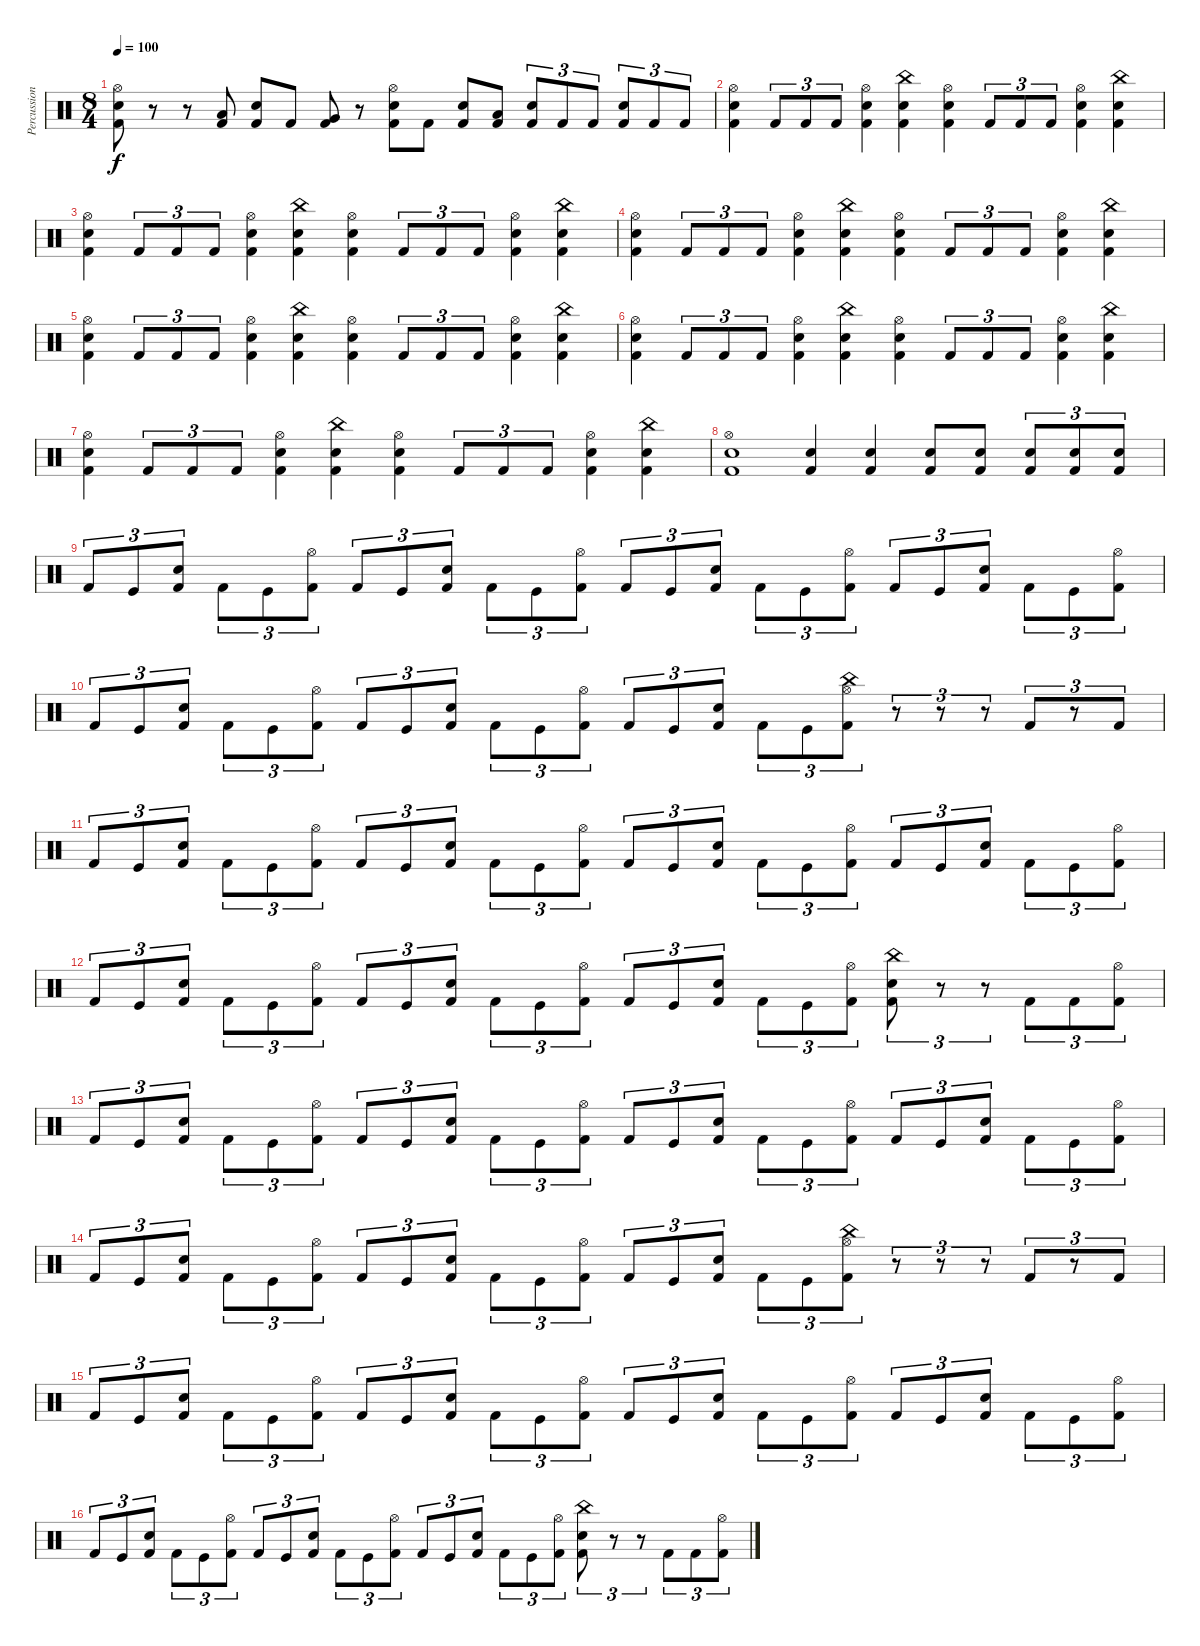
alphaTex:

\track ("Percussions" "Percussion") {instrument percussion}
\staff {score}
\articulation defaults
\ts (8 4)
\tempo 100
\clef neutral
\ks c
("Hi-Hat (open)" "Electric Snare (hit)" "Kick (hit) 2").8{dy f} r.8 r.8 ("Low Floor Tom (hit)" "Kick (hit) 2").8 ("Electric Snare (hit)" "Kick (hit) 2").8 "Kick (hit) 2".8 ("Very Low Tom (hit)" "Kick (hit) 2").8 r.8 ("Hi-Hat (open)" "Electric Snare (hit)" "Kick (hit) 2").8 "Kick (hit) 2".8 ("Electric Snare (hit)" "Kick (hit) 2").8 ("Low Floor Tom (hit)" "Kick (hit) 2").8 ("Electric Snare (hit)" "Kick (hit) 2").8{tu (3 2)} "Kick (hit) 2".8{tu (3 2)} "Kick (hit) 2".8{tu (3 2)} ("Electric Snare (hit)" "Kick (hit) 2").8{tu (3 2)} "Kick (hit) 2".8{tu (3 2)} "Kick (hit) 2".8{tu (3 2)} |
("Hi-Hat (open)" "Electric Snare (hit)" "Kick (hit) 2").4 "Kick (hit) 2".8{tu (3 2)} "Kick (hit) 2".8{tu (3 2)} "Kick (hit) 2".8{tu (3 2)} ("Hi-Hat (open)" "Electric Snare (hit)" "Kick (hit) 2").4 ("China (hit)" "Electric Snare (hit)" "Kick (hit) 2").4 ("Hi-Hat (open)" "Electric Snare (hit)" "Kick (hit) 2").4 "Kick (hit) 2".8{tu (3 2)} "Kick (hit) 2".8{tu (3 2)} "Kick (hit) 2".8{tu (3 2)} ("Hi-Hat (open)" "Electric Snare (hit)" "Kick (hit) 2").4 ("China (hit)" "Electric Snare (hit)" "Kick (hit) 2").4 |
("Hi-Hat (open)" "Electric Snare (hit)" "Kick (hit) 2").4 "Kick (hit) 2".8{tu (3 2)} "Kick (hit) 2".8{tu (3 2)} "Kick (hit) 2".8{tu (3 2)} ("Hi-Hat (open)" "Electric Snare (hit)" "Kick (hit) 2").4 ("China (hit)" "Electric Snare (hit)" "Kick (hit) 2").4 ("Hi-Hat (open)" "Electric Snare (hit)" "Kick (hit) 2").4 "Kick (hit) 2".8{tu (3 2)} "Kick (hit) 2".8{tu (3 2)} "Kick (hit) 2".8{tu (3 2)} ("Hi-Hat (open)" "Electric Snare (hit)" "Kick (hit) 2").4 ("China (hit)" "Electric Snare (hit)" "Kick (hit) 2").4 |
("Hi-Hat (open)" "Electric Snare (hit)" "Kick (hit) 2").4 "Kick (hit) 2".8{tu (3 2)} "Kick (hit) 2".8{tu (3 2)} "Kick (hit) 2".8{tu (3 2)} ("Hi-Hat (open)" "Electric Snare (hit)" "Kick (hit) 2").4 ("China (hit)" "Electric Snare (hit)" "Kick (hit) 2").4 ("Hi-Hat (open)" "Electric Snare (hit)" "Kick (hit) 2").4 "Kick (hit) 2".8{tu (3 2)} "Kick (hit) 2".8{tu (3 2)} "Kick (hit) 2".8{tu (3 2)} ("Hi-Hat (open)" "Electric Snare (hit)" "Kick (hit) 2").4 ("China (hit)" "Electric Snare (hit)" "Kick (hit) 2").4 |
("Hi-Hat (open)" "Electric Snare (hit)" "Kick (hit) 2").4 "Kick (hit) 2".8{tu (3 2)} "Kick (hit) 2".8{tu (3 2)} "Kick (hit) 2".8{tu (3 2)} ("Hi-Hat (open)" "Electric Snare (hit)" "Kick (hit) 2").4 ("China (hit)" "Electric Snare (hit)" "Kick (hit) 2").4 ("Hi-Hat (open)" "Electric Snare (hit)" "Kick (hit) 2").4 "Kick (hit) 2".8{tu (3 2)} "Kick (hit) 2".8{tu (3 2)} "Kick (hit) 2".8{tu (3 2)} ("Hi-Hat (open)" "Electric Snare (hit)" "Kick (hit) 2").4 ("China (hit)" "Electric Snare (hit)" "Kick (hit) 2").4 |
("Hi-Hat (open)" "Electric Snare (hit)" "Kick (hit) 2").4 "Kick (hit) 2".8{tu (3 2)} "Kick (hit) 2".8{tu (3 2)} "Kick (hit) 2".8{tu (3 2)} ("Hi-Hat (open)" "Electric Snare (hit)" "Kick (hit) 2").4 ("China (hit)" "Electric Snare (hit)" "Kick (hit) 2").4 ("Hi-Hat (open)" "Electric Snare (hit)" "Kick (hit) 2").4 "Kick (hit) 2".8{tu (3 2)} "Kick (hit) 2".8{tu (3 2)} "Kick (hit) 2".8{tu (3 2)} ("Hi-Hat (open)" "Electric Snare (hit)" "Kick (hit) 2").4 ("China (hit)" "Electric Snare (hit)" "Kick (hit) 2").4 |
("Hi-Hat (open)" "Electric Snare (hit)" "Kick (hit) 2").4 "Kick (hit) 2".8{tu (3 2)} "Kick (hit) 2".8{tu (3 2)} "Kick (hit) 2".8{tu (3 2)} ("Hi-Hat (open)" "Electric Snare (hit)" "Kick (hit) 2").4 ("China (hit)" "Electric Snare (hit)" "Kick (hit) 2").4 ("Hi-Hat (open)" "Electric Snare (hit)" "Kick (hit) 2").4 "Kick (hit) 2".8{tu (3 2)} "Kick (hit) 2".8{tu (3 2)} "Kick (hit) 2".8{tu (3 2)} ("Hi-Hat (open)" "Electric Snare (hit)" "Kick (hit) 2").4 ("China (hit)" "Electric Snare (hit)" "Kick (hit) 2").4 |
("Hi-Hat (open)" "Electric Snare (hit)" "Kick (hit) 2").1 ("Electric Snare (hit)" "Kick (hit) 2").4 ("Electric Snare (hit)" "Kick (hit) 2").4 ("Electric Snare (hit)" "Kick (hit) 2").8 ("Electric Snare (hit)" "Kick (hit) 2").8 ("Electric Snare (hit)" "Kick (hit) 2").8{tu (3 2)} ("Electric Snare (hit)" "Kick (hit) 2").8{tu (3 2)} ("Electric Snare (hit)" "Kick (hit) 2").8{tu (3 2)} |
"Kick (hit) 2".8{tu (3 2)} "Kick (hit)".8{tu (3 2)} ("Electric Snare (hit)" "Kick (hit) 2").8{tu (3 2)} "Kick (hit) 2".8{tu (3 2)} "Kick (hit)".8{tu (3 2)} ("Hi-Hat (open)" "Kick (hit) 2").8{tu (3 2)} "Kick (hit) 2".8{tu (3 2)} "Kick (hit)".8{tu (3 2)} ("Electric Snare (hit)" "Kick (hit) 2").8{tu (3 2)} "Kick (hit) 2".8{tu (3 2)} "Kick (hit)".8{tu (3 2)} ("Hi-Hat (open)" "Kick (hit) 2").8{tu (3 2)} "Kick (hit) 2".8{tu (3 2)} "Kick (hit)".8{tu (3 2)} ("Electric Snare (hit)" "Kick (hit) 2").8{tu (3 2)} "Kick (hit) 2".8{tu (3 2)} "Kick (hit)".8{tu (3 2)} ("Hi-Hat (open)" "Kick (hit) 2").8{tu (3 2)} "Kick (hit) 2".8{tu (3 2)} "Kick (hit)".8{tu (3 2)} ("Electric Snare (hit)" "Kick (hit) 2").8{tu (3 2)} "Kick (hit) 2".8{tu (3 2)} "Kick (hit)".8{tu (3 2)} ("Hi-Hat (open)" "Kick (hit) 2").8{tu (3 2)} |
"Kick (hit) 2".8{tu (3 2)} "Kick (hit)".8{tu (3 2)} ("Electric Snare (hit)" "Kick (hit) 2").8{tu (3 2)} "Kick (hit) 2".8{tu (3 2)} "Kick (hit)".8{tu (3 2)} ("Hi-Hat (open)" "Kick (hit) 2").8{tu (3 2)} "Kick (hit) 2".8{tu (3 2)} "Kick (hit)".8{tu (3 2)} ("Electric Snare (hit)" "Kick (hit) 2").8{tu (3 2)} "Kick (hit) 2".8{tu (3 2)} "Kick (hit)".8{tu (3 2)} ("Hi-Hat (open)" "Kick (hit) 2").8{tu (3 2)} "Kick (hit) 2".8{tu (3 2)} "Kick (hit)".8{tu (3 2)} ("Electric Snare (hit)" "Kick (hit) 2").8{tu (3 2)} "Kick (hit) 2".8{tu (3 2)} "Kick (hit)".8{tu (3 2)} ("China (hit)" "Hi-Hat (open)" "Kick (hit) 2").8{tu (3 2)} r.8{tu (3 2)} r.8{tu (3 2)} r.8{tu (3 2)} "Kick (hit) 2".8{tu (3 2)} r.8{tu (3 2)} "Kick (hit) 2".8{tu (3 2)} |
"Kick (hit) 2".8{tu (3 2)} "Kick (hit)".8{tu (3 2)} ("Electric Snare (hit)" "Kick (hit) 2").8{tu (3 2)} "Kick (hit) 2".8{tu (3 2)} "Kick (hit)".8{tu (3 2)} ("Hi-Hat (open)" "Kick (hit) 2").8{tu (3 2)} "Kick (hit) 2".8{tu (3 2)} "Kick (hit)".8{tu (3 2)} ("Electric Snare (hit)" "Kick (hit) 2").8{tu (3 2)} "Kick (hit) 2".8{tu (3 2)} "Kick (hit)".8{tu (3 2)} ("Hi-Hat (open)" "Kick (hit) 2").8{tu (3 2)} "Kick (hit) 2".8{tu (3 2)} "Kick (hit)".8{tu (3 2)} ("Electric Snare (hit)" "Kick (hit) 2").8{tu (3 2)} "Kick (hit) 2".8{tu (3 2)} "Kick (hit)".8{tu (3 2)} ("Hi-Hat (open)" "Kick (hit) 2").8{tu (3 2)} "Kick (hit) 2".8{tu (3 2)} "Kick (hit)".8{tu (3 2)} ("Electric Snare (hit)" "Kick (hit) 2").8{tu (3 2)} "Kick (hit) 2".8{tu (3 2)} "Kick (hit)".8{tu (3 2)} ("Hi-Hat (open)" "Kick (hit) 2").8{tu (3 2)} |
"Kick (hit) 2".8{tu (3 2)} "Kick (hit)".8{tu (3 2)} ("Electric Snare (hit)" "Kick (hit) 2").8{tu (3 2)} "Kick (hit) 2".8{tu (3 2)} "Kick (hit)".8{tu (3 2)} ("Hi-Hat (open)" "Kick (hit) 2").8{tu (3 2)} "Kick (hit) 2".8{tu (3 2)} "Kick (hit)".8{tu (3 2)} ("Electric Snare (hit)" "Kick (hit) 2").8{tu (3 2)} "Kick (hit) 2".8{tu (3 2)} "Kick (hit)".8{tu (3 2)} ("Hi-Hat (open)" "Kick (hit) 2").8{tu (3 2)} "Kick (hit) 2".8{tu (3 2)} "Kick (hit)".8{tu (3 2)} ("Electric Snare (hit)" "Kick (hit) 2").8{tu (3 2)} "Kick (hit) 2".8{tu (3 2)} "Kick (hit)".8{tu (3 2)} ("Hi-Hat (open)" "Kick (hit) 2").8{tu (3 2)} ("China (hit)" "Electric Snare (hit)" "Kick (hit) 2").8{tu (3 2)} r.8{tu (3 2)} r.8{tu (3 2)} "Kick (hit) 2".8{tu (3 2)} "Kick (hit) 2".8{tu (3 2)} ("Hi-Hat (open)" "Kick (hit) 2").8{tu (3 2)} |
"Kick (hit) 2".8{tu (3 2)} "Kick (hit)".8{tu (3 2)} ("Electric Snare (hit)" "Kick (hit) 2").8{tu (3 2)} "Kick (hit) 2".8{tu (3 2)} "Kick (hit)".8{tu (3 2)} ("Hi-Hat (open)" "Kick (hit) 2").8{tu (3 2)} "Kick (hit) 2".8{tu (3 2)} "Kick (hit)".8{tu (3 2)} ("Electric Snare (hit)" "Kick (hit) 2").8{tu (3 2)} "Kick (hit) 2".8{tu (3 2)} "Kick (hit)".8{tu (3 2)} ("Hi-Hat (open)" "Kick (hit) 2").8{tu (3 2)} "Kick (hit) 2".8{tu (3 2)} "Kick (hit)".8{tu (3 2)} ("Electric Snare (hit)" "Kick (hit) 2").8{tu (3 2)} "Kick (hit) 2".8{tu (3 2)} "Kick (hit)".8{tu (3 2)} ("Hi-Hat (open)" "Kick (hit) 2").8{tu (3 2)} "Kick (hit) 2".8{tu (3 2)} "Kick (hit)".8{tu (3 2)} ("Electric Snare (hit)" "Kick (hit) 2").8{tu (3 2)} "Kick (hit) 2".8{tu (3 2)} "Kick (hit)".8{tu (3 2)} ("Hi-Hat (open)" "Kick (hit) 2").8{tu (3 2)} |
"Kick (hit) 2".8{tu (3 2)} "Kick (hit)".8{tu (3 2)} ("Electric Snare (hit)" "Kick (hit) 2").8{tu (3 2)} "Kick (hit) 2".8{tu (3 2)} "Kick (hit)".8{tu (3 2)} ("Hi-Hat (open)" "Kick (hit) 2").8{tu (3 2)} "Kick (hit) 2".8{tu (3 2)} "Kick (hit)".8{tu (3 2)} ("Electric Snare (hit)" "Kick (hit) 2").8{tu (3 2)} "Kick (hit) 2".8{tu (3 2)} "Kick (hit)".8{tu (3 2)} ("Hi-Hat (open)" "Kick (hit) 2").8{tu (3 2)} "Kick (hit) 2".8{tu (3 2)} "Kick (hit)".8{tu (3 2)} ("Electric Snare (hit)" "Kick (hit) 2").8{tu (3 2)} "Kick (hit) 2".8{tu (3 2)} "Kick (hit)".8{tu (3 2)} ("China (hit)" "Hi-Hat (open)" "Kick (hit) 2").8{tu (3 2)} r.8{tu (3 2)} r.8{tu (3 2)} r.8{tu (3 2)} "Kick (hit) 2".8{tu (3 2)} r.8{tu (3 2)} "Kick (hit) 2".8{tu (3 2)} |
"Kick (hit) 2".8{tu (3 2)} "Kick (hit)".8{tu (3 2)} ("Electric Snare (hit)" "Kick (hit) 2").8{tu (3 2)} "Kick (hit) 2".8{tu (3 2)} "Kick (hit)".8{tu (3 2)} ("Hi-Hat (open)" "Kick (hit) 2").8{tu (3 2)} "Kick (hit) 2".8{tu (3 2)} "Kick (hit)".8{tu (3 2)} ("Electric Snare (hit)" "Kick (hit) 2").8{tu (3 2)} "Kick (hit) 2".8{tu (3 2)} "Kick (hit)".8{tu (3 2)} ("Hi-Hat (open)" "Kick (hit) 2").8{tu (3 2)} "Kick (hit) 2".8{tu (3 2)} "Kick (hit)".8{tu (3 2)} ("Electric Snare (hit)" "Kick (hit) 2").8{tu (3 2)} "Kick (hit) 2".8{tu (3 2)} "Kick (hit)".8{tu (3 2)} ("Hi-Hat (open)" "Kick (hit) 2").8{tu (3 2)} "Kick (hit) 2".8{tu (3 2)} "Kick (hit)".8{tu (3 2)} ("Electric Snare (hit)" "Kick (hit) 2").8{tu (3 2)} "Kick (hit) 2".8{tu (3 2)} "Kick (hit)".8{tu (3 2)} ("Hi-Hat (open)" "Kick (hit) 2").8{tu (3 2)} |
"Kick (hit) 2".8{tu (3 2)} "Kick (hit)".8{tu (3 2)} ("Electric Snare (hit)" "Kick (hit) 2").8{tu (3 2)} "Kick (hit) 2".8{tu (3 2)} "Kick (hit)".8{tu (3 2)} ("Hi-Hat (open)" "Kick (hit) 2").8{tu (3 2)} "Kick (hit) 2".8{tu (3 2)} "Kick (hit)".8{tu (3 2)} ("Electric Snare (hit)" "Kick (hit) 2").8{tu (3 2)} "Kick (hit) 2".8{tu (3 2)} "Kick (hit)".8{tu (3 2)} ("Hi-Hat (open)" "Kick (hit) 2").8{tu (3 2)} "Kick (hit) 2".8{tu (3 2)} "Kick (hit)".8{tu (3 2)} ("Electric Snare (hit)" "Kick (hit) 2").8{tu (3 2)} "Kick (hit) 2".8{tu (3 2)} "Kick (hit)".8{tu (3 2)} ("Hi-Hat (open)" "Kick (hit) 2").8{tu (3 2)} ("China (hit)" "Electric Snare (hit)" "Kick (hit) 2").8{tu (3 2)} r.8{tu (3 2)} r.8{tu (3 2)} "Kick (hit) 2".8{tu (3 2)} "Kick (hit) 2".8{tu (3 2)} ("Hi-Hat (open)" "Kick (hit) 2").8{tu (3 2)}
